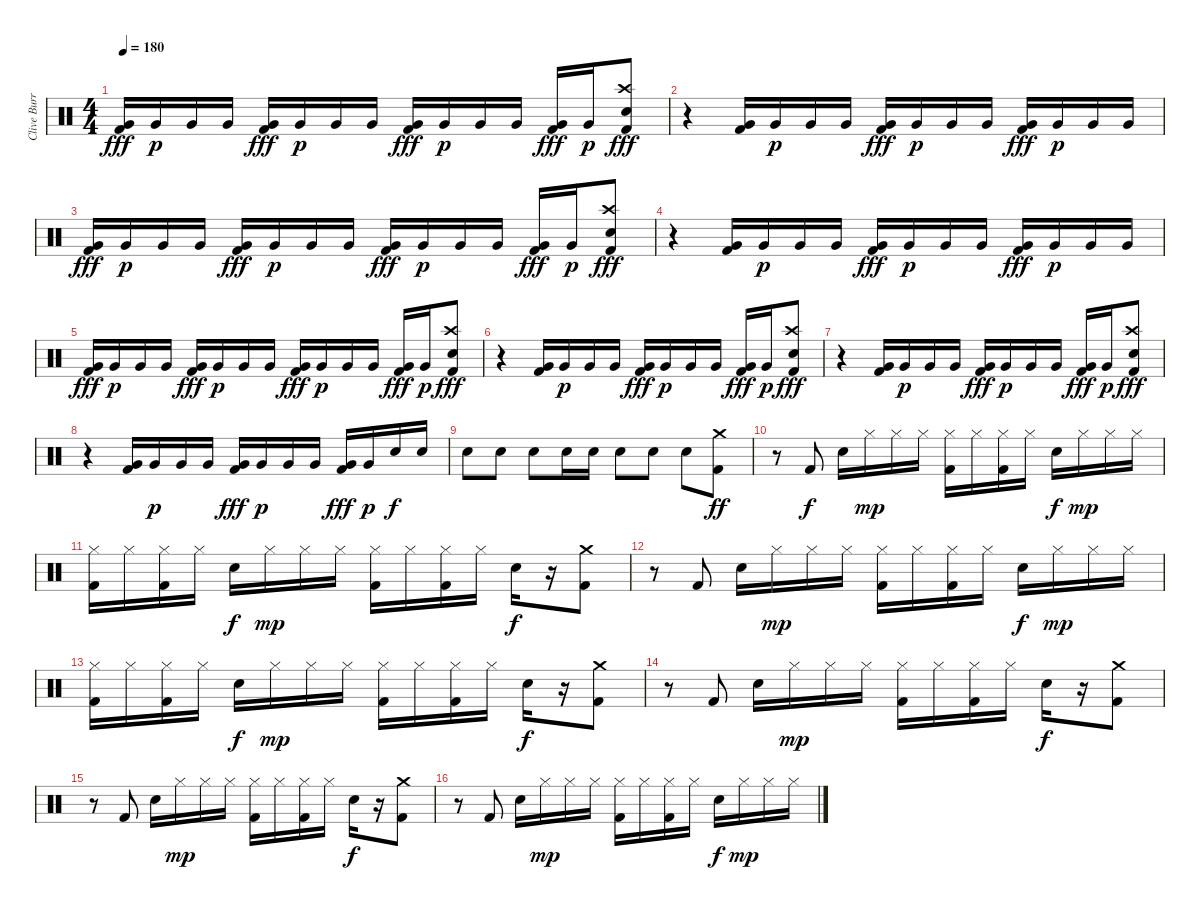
\track ("Clive Burr - Drums" "Clive Burr") {instrument percussion}
\staff {score}
\articulation defaults
\ts (4 4)
\tempo 180
\clef neutral
\ks c
("Very Low Tom (hit)" "Kick (hit) 2").16{dy fff} "Very Low Tom (hit)".16{dy p} "Very Low Tom (hit)".16 "Very Low Tom (hit)".16 ("Very Low Tom (hit)" "Kick (hit) 2").16{dy fff} "Very Low Tom (hit)".16{dy p} "Very Low Tom (hit)".16 "Very Low Tom (hit)".16 ("Very Low Tom (hit)" "Kick (hit) 2").16{dy fff} "Very Low Tom (hit)".16{dy p} "Very Low Tom (hit)".16 "Very Low Tom (hit)".16 ("Very Low Tom (hit)" "Kick (hit) 2").16{dy fff} "Very Low Tom (hit)".16{dy p} ("Crash high (hit)" "Snare (hit) 2" "Kick (hit) 2").8{dy fff} |
r.4 ("Very Low Tom (hit)" "Kick (hit) 2").16 "Very Low Tom (hit)".16{dy p} "Very Low Tom (hit)".16 "Very Low Tom (hit)".16 ("Very Low Tom (hit)" "Kick (hit) 2").16{dy fff} "Very Low Tom (hit)".16{dy p} "Very Low Tom (hit)".16 "Very Low Tom (hit)".16 ("Very Low Tom (hit)" "Kick (hit) 2").16{dy fff} "Very Low Tom (hit)".16{dy p} "Very Low Tom (hit)".16 "Very Low Tom (hit)".16 |
("Very Low Tom (hit)" "Kick (hit) 2").16{dy fff} "Very Low Tom (hit)".16{dy p} "Very Low Tom (hit)".16 "Very Low Tom (hit)".16 ("Very Low Tom (hit)" "Kick (hit) 2").16{dy fff} "Very Low Tom (hit)".16{dy p} "Very Low Tom (hit)".16 "Very Low Tom (hit)".16 ("Very Low Tom (hit)" "Kick (hit) 2").16{dy fff} "Very Low Tom (hit)".16{dy p} "Very Low Tom (hit)".16 "Very Low Tom (hit)".16 ("Very Low Tom (hit)" "Kick (hit) 2").16{dy fff} "Very Low Tom (hit)".16{dy p} ("Crash high (hit)" "Snare (hit) 2" "Kick (hit) 2").8{dy fff} |
r.4 ("Very Low Tom (hit)" "Kick (hit) 2").16 "Very Low Tom (hit)".16{dy p} "Very Low Tom (hit)".16 "Very Low Tom (hit)".16 ("Very Low Tom (hit)" "Kick (hit) 2").16{dy fff} "Very Low Tom (hit)".16{dy p} "Very Low Tom (hit)".16 "Very Low Tom (hit)".16 ("Very Low Tom (hit)" "Kick (hit) 2").16{dy fff} "Very Low Tom (hit)".16{dy p} "Very Low Tom (hit)".16 "Very Low Tom (hit)".16 |
("Very Low Tom (hit)" "Kick (hit) 2").16{dy fff} "Very Low Tom (hit)".16{dy p} "Very Low Tom (hit)".16 "Very Low Tom (hit)".16 ("Very Low Tom (hit)" "Kick (hit) 2").16{dy fff} "Very Low Tom (hit)".16{dy p} "Very Low Tom (hit)".16 "Very Low Tom (hit)".16 ("Very Low Tom (hit)" "Kick (hit) 2").16{dy fff} "Very Low Tom (hit)".16{dy p} "Very Low Tom (hit)".16 "Very Low Tom (hit)".16 ("Very Low Tom (hit)" "Kick (hit) 2").16{dy fff} "Very Low Tom (hit)".16{dy p} ("Crash high (hit)" "Snare (hit) 2" "Kick (hit) 2").8{dy fff} |
r.4 ("Very Low Tom (hit)" "Kick (hit) 2").16 "Very Low Tom (hit)".16{dy p} "Very Low Tom (hit)".16 "Very Low Tom (hit)".16 ("Very Low Tom (hit)" "Kick (hit) 2").16{dy fff} "Very Low Tom (hit)".16{dy p} "Very Low Tom (hit)".16 "Very Low Tom (hit)".16 ("Very Low Tom (hit)" "Kick (hit) 2").16{dy fff} "Very Low Tom (hit)".16{dy p} ("Crash high (hit)" "Snare (hit) 2" "Kick (hit) 2").8{dy fff} |
r.4 ("Very Low Tom (hit)" "Kick (hit) 2").16 "Very Low Tom (hit)".16{dy p} "Very Low Tom (hit)".16 "Very Low Tom (hit)".16 ("Very Low Tom (hit)" "Kick (hit) 2").16{dy fff} "Very Low Tom (hit)".16{dy p} "Very Low Tom (hit)".16 "Very Low Tom (hit)".16 ("Very Low Tom (hit)" "Kick (hit) 2").16{dy fff} "Very Low Tom (hit)".16{dy p} ("Crash high (hit)" "Snare (hit) 2" "Kick (hit) 2").8{dy fff} |
r.4 ("Very Low Tom (hit)" "Kick (hit) 2").16 "Very Low Tom (hit)".16{dy p} "Very Low Tom (hit)".16 "Very Low Tom (hit)".16 ("Very Low Tom (hit)" "Kick (hit) 2").16{dy fff} "Very Low Tom (hit)".16{dy p} "Very Low Tom (hit)".16 "Very Low Tom (hit)".16 ("Very Low Tom (hit)" "Kick (hit) 2").16{dy fff} "Very Low Tom (hit)".16{dy p} "Snare (hit) 2".16{dy f} "Snare (hit) 2".16 |
"Snare (hit) 2".8 "Snare (hit) 2".8 "Snare (hit) 2".8 "Snare (hit) 2".16 "Snare (hit) 2".16 "Snare (hit) 2".8 "Snare (hit) 2".8 "Snare (hit) 2".8 ("Crash medium (hit)" "Kick (hit) 2").8{dy ff} |
r.8 "Kick (hit) 2".8{dy f} "Snare (hit) 2".16 "Hi-Hat (closed)".16{dy mp} "Hi-Hat (closed)".16 "Hi-Hat (closed)".16 ("Hi-Hat (closed)" "Kick (hit) 2").16 "Hi-Hat (closed)".16 ("Hi-Hat (closed)" "Kick (hit) 2").16 "Hi-Hat (closed)".16 "Snare (hit) 2".16{dy f} "Hi-Hat (closed)".16{dy mp} "Hi-Hat (closed)".16 "Hi-Hat (closed)".16 |
("Hi-Hat (closed)" "Kick (hit) 2").16 "Hi-Hat (closed)".16 ("Hi-Hat (closed)" "Kick (hit) 2").16 "Hi-Hat (closed)".16 "Snare (hit) 2".16{dy f} "Hi-Hat (closed)".16{dy mp} "Hi-Hat (closed)".16 "Hi-Hat (closed)".16 ("Hi-Hat (closed)" "Kick (hit) 2").16 "Hi-Hat (closed)".16 ("Hi-Hat (closed)" "Kick (hit) 2").16 "Hi-Hat (closed)".16 "Snare (hit) 2".16{dy f} r.16 ("Crash medium (hit)" "Kick (hit) 2").8 |
r.8 "Kick (hit) 2".8 "Snare (hit) 2".16 "Hi-Hat (closed)".16{dy mp} "Hi-Hat (closed)".16 "Hi-Hat (closed)".16 ("Hi-Hat (closed)" "Kick (hit) 2").16 "Hi-Hat (closed)".16 ("Hi-Hat (closed)" "Kick (hit) 2").16 "Hi-Hat (closed)".16 "Snare (hit) 2".16{dy f} "Hi-Hat (closed)".16{dy mp} "Hi-Hat (closed)".16 "Hi-Hat (closed)".16 |
("Hi-Hat (closed)" "Kick (hit) 2").16 "Hi-Hat (closed)".16 ("Hi-Hat (closed)" "Kick (hit) 2").16 "Hi-Hat (closed)".16 "Snare (hit) 2".16{dy f} "Hi-Hat (closed)".16{dy mp} "Hi-Hat (closed)".16 "Hi-Hat (closed)".16 ("Hi-Hat (closed)" "Kick (hit) 2").16 "Hi-Hat (closed)".16 ("Hi-Hat (closed)" "Kick (hit) 2").16 "Hi-Hat (closed)".16 "Snare (hit) 2".16{dy f} r.16 ("Crash medium (hit)" "Kick (hit) 2").8 |
r.8 "Kick (hit) 2".8 "Snare (hit) 2".16 "Hi-Hat (closed)".16{dy mp} "Hi-Hat (closed)".16 "Hi-Hat (closed)".16 ("Hi-Hat (closed)" "Kick (hit) 2").16 "Hi-Hat (closed)".16 ("Hi-Hat (closed)" "Kick (hit) 2").16 "Hi-Hat (closed)".16 "Snare (hit) 2".16{dy f} r.16 ("Crash medium (hit)" "Kick (hit) 2").8 |
r.8 "Kick (hit) 2".8 "Snare (hit) 2".16 "Hi-Hat (closed)".16{dy mp} "Hi-Hat (closed)".16 "Hi-Hat (closed)".16 ("Hi-Hat (closed)" "Kick (hit) 2").16 "Hi-Hat (closed)".16 ("Hi-Hat (closed)" "Kick (hit) 2").16 "Hi-Hat (closed)".16 "Snare (hit) 2".16{dy f} r.16 ("Crash medium (hit)" "Kick (hit) 2").8 |
r.8 "Kick (hit) 2".8 "Snare (hit) 2".16 "Hi-Hat (closed)".16{dy mp} "Hi-Hat (closed)".16 "Hi-Hat (closed)".16 ("Hi-Hat (closed)" "Kick (hit) 2").16 "Hi-Hat (closed)".16 ("Hi-Hat (closed)" "Kick (hit) 2").16 "Hi-Hat (closed)".16 "Snare (hit) 2".16{dy f} "Hi-Hat (closed)".16{dy mp} "Hi-Hat (closed)".16 "Hi-Hat (closed)".16
